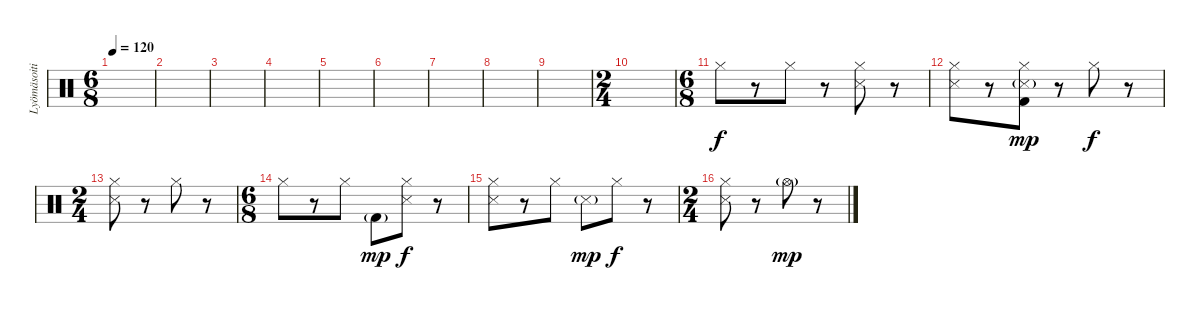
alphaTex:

\track ("Lyömäsoitin" "Lyömäsoiti") {instrument percussion}
\staff {score}
\articulation defaults
\ts (6 8)
\tempo 120
\clef neutral
\ks c
|
|
|
|
|
|
|
|
|
\ts (2 4)
|
\ts (6 8)
"Hi-Hat (closed)".8{dy f} r.8 "Hi-Hat (closed)".8 r.8 ("Hi-Hat (closed)" "Snare (side stick) 3").8 r.8 |
("Hi-Hat (closed)" "Snare (side stick) 3").8 r.8 ("Hi-Hat (closed)" "Snare (side stick) 3"{g} "Kick (hit) 2").8{dy mp} r.8 "Hi-Hat (closed)".8{dy f} r.8 |
\ts (2 4)
("Hi-Hat (closed)" "Snare (side stick) 3").8 r.8 "Hi-Hat (closed)".8 r.8 |
\ts (6 8)
"Hi-Hat (closed)".8 r.8 "Hi-Hat (closed)".8 "Kick (hit) 2"{g}.8{dy mp} ("Hi-Hat (closed)" "Snare (side stick) 3").8{dy f} r.8 |
("Hi-Hat (closed)" "Snare (side stick) 3").8 r.8 "Hi-Hat (closed)".8 "Snare (side stick) 3"{g}.8{dy mp} "Hi-Hat (closed)".8{dy f} r.8 |
\ts (2 4)
("Hi-Hat (closed)" "Snare (side stick) 3").8 r.8 "Hi-Hat (open)"{g}.8{dy mp} r.8
